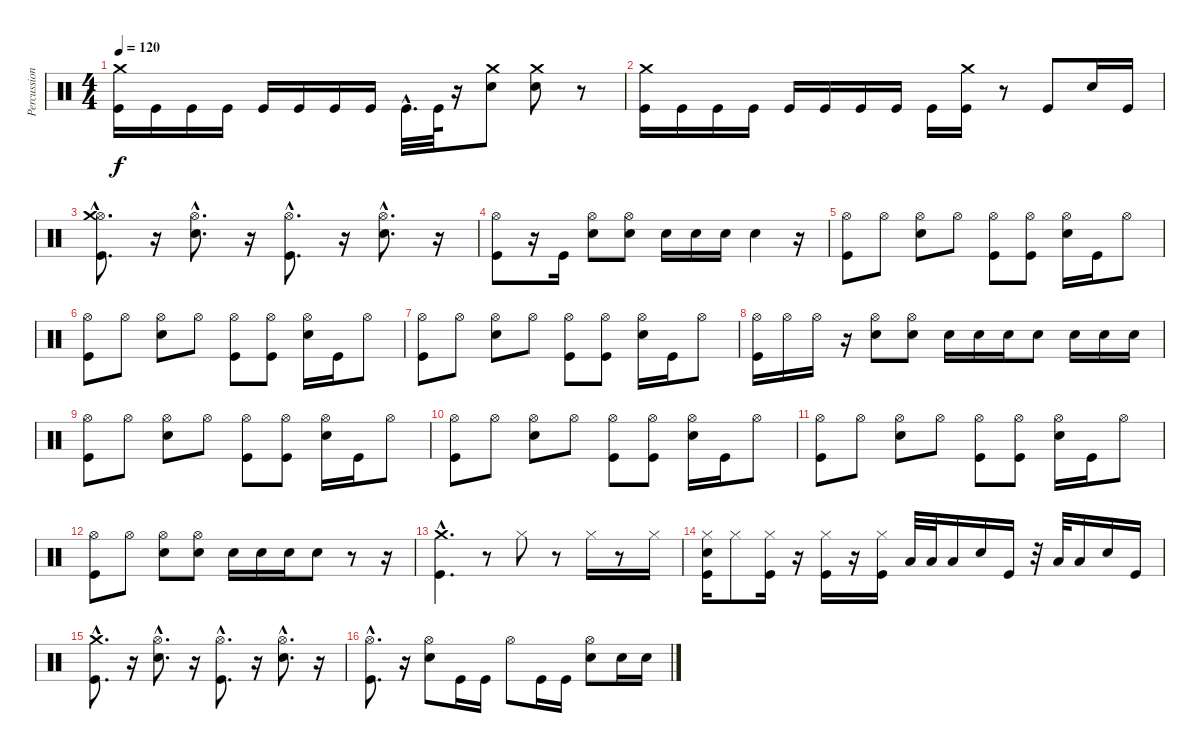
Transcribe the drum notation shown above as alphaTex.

\track ("Percussion" "Percussion") {instrument percussion}
\staff {score}
\articulation defaults
\ts (4 4)
\tempo 120
\clef neutral
\ks c
("Kick (hit)" "Crash medium (hit)").16{dy f} "Kick (hit)".16 "Kick (hit)".16 "Kick (hit)".16 "Kick (hit)".16 "Kick (hit)".16 "Kick (hit)".16 "Kick (hit)".16 "Kick (hit)"{hac}.32{d} "Kick (hit)".64 r.16 ("Crash medium (hit)" "Electric Snare (hit)").8 ("Crash medium (hit)" "Electric Snare (hit)").8 r.8 |
("Kick (hit)" "Crash medium (hit)").16 "Kick (hit)".16 "Kick (hit)".16 "Kick (hit)".16 "Kick (hit)".16 "Kick (hit)".16 "Kick (hit)".16 "Kick (hit)".16 "Kick (hit)".16 ("Kick (hit)" "Crash medium (hit)").16 r.8 "Kick (hit)".8 "Electric Snare (hit)".16 "Kick (hit)".16 |
("Hi-Hat (open)"{hac} "Kick (hit)"{hac} "Crash medium (hit)"{hac}).8{d} r.16 ("Hi-Hat (open)"{hac} "Electric Snare (hit)"{hac}).8{d} r.16 ("Hi-Hat (open)"{hac} "Kick (hit)"{hac}).8{d} r.16 ("Hi-Hat (open)"{hac} "Electric Snare (hit)"{hac}).8{d} r.16 |
("Hi-Hat (open)" "Kick (hit)").8 r.16 "Kick (hit)".16 ("Hi-Hat (open)" "Electric Snare (hit)").8 ("Hi-Hat (open)" "Electric Snare (hit)").8 "Electric Snare (hit)".16 "Electric Snare (hit)".16 "Electric Snare (hit)".16 "Electric Snare (hit)".4 r.16 |
("Hi-Hat (open)" "Kick (hit)").8 "Hi-Hat (open)".8 ("Hi-Hat (open)" "Electric Snare (hit)").8 "Hi-Hat (open)".8 ("Hi-Hat (open)" "Kick (hit)").8 ("Hi-Hat (open)" "Kick (hit)").8 ("Hi-Hat (open)" "Electric Snare (hit)").16 "Kick (hit)".16 "Hi-Hat (open)".8 |
("Hi-Hat (open)" "Kick (hit)").8 "Hi-Hat (open)".8 ("Hi-Hat (open)" "Electric Snare (hit)").8 "Hi-Hat (open)".8 ("Hi-Hat (open)" "Kick (hit)").8 ("Hi-Hat (open)" "Kick (hit)").8 ("Hi-Hat (open)" "Electric Snare (hit)").16 "Kick (hit)".16 "Hi-Hat (open)".8 |
("Hi-Hat (open)" "Kick (hit)").8 "Hi-Hat (open)".8 ("Hi-Hat (open)" "Electric Snare (hit)").8 "Hi-Hat (open)".8 ("Hi-Hat (open)" "Kick (hit)").8 ("Hi-Hat (open)" "Kick (hit)").8 ("Hi-Hat (open)" "Electric Snare (hit)").16 "Kick (hit)".16 "Hi-Hat (open)".8 |
("Hi-Hat (open)" "Kick (hit)").16 "Hi-Hat (open)".16 "Hi-Hat (open)".16 r.16 ("Hi-Hat (open)" "Electric Snare (hit)").8 ("Hi-Hat (open)" "Electric Snare (hit)").8 "Electric Snare (hit)".16 "Electric Snare (hit)".16 "Electric Snare (hit)".16 "Electric Snare (hit)".8 "Electric Snare (hit)".16 "Electric Snare (hit)".16 "Electric Snare (hit)".16 |
("Hi-Hat (open)" "Kick (hit)").8 "Hi-Hat (open)".8 ("Hi-Hat (open)" "Electric Snare (hit)").8 "Hi-Hat (open)".8 ("Hi-Hat (open)" "Kick (hit)").8 ("Hi-Hat (open)" "Kick (hit)").8 ("Hi-Hat (open)" "Electric Snare (hit)").16 "Kick (hit)".16 "Hi-Hat (open)".8 |
("Hi-Hat (open)" "Kick (hit)").8 "Hi-Hat (open)".8 ("Hi-Hat (open)" "Electric Snare (hit)").8 "Hi-Hat (open)".8 ("Hi-Hat (open)" "Kick (hit)").8 ("Hi-Hat (open)" "Kick (hit)").8 ("Hi-Hat (open)" "Electric Snare (hit)").16 "Kick (hit)".16 "Hi-Hat (open)".8 |
("Hi-Hat (open)" "Kick (hit)").8 "Hi-Hat (open)".8 ("Hi-Hat (open)" "Electric Snare (hit)").8 "Hi-Hat (open)".8 ("Hi-Hat (open)" "Kick (hit)").8 ("Hi-Hat (open)" "Kick (hit)").8 ("Hi-Hat (open)" "Electric Snare (hit)").16 "Kick (hit)".16 "Hi-Hat (open)".8 |
("Hi-Hat (open)" "Kick (hit)").8 "Hi-Hat (open)".8 ("Hi-Hat (open)" "Electric Snare (hit)").8 ("Hi-Hat (open)" "Electric Snare (hit)").8 "Electric Snare (hit)".16 "Electric Snare (hit)".16 "Electric Snare (hit)".16 "Electric Snare (hit)".8 r.8 r.16 |
("Kick (hit)"{hac} "Crash medium (hit)"{hac}).4{d} r.8 "Hi-Hat (closed)".8 r.8 "Hi-Hat (closed)".16 r.8 "Hi-Hat (closed)".16 |
("Electric Snare (hit)" "Kick (hit)" "Hi-Hat (closed)").16 "Hi-Hat (closed)".8 ("Kick (hit)" "Hi-Hat (closed)").16 r.16 ("Kick (hit)" "Hi-Hat (closed)").16 r.16 ("Kick (hit)" "Hi-Hat (closed)").16 "Low Tom (hit)".32 "Low Tom (hit)".32 "Low Tom (hit)".16 "Electric Snare (hit)".16 "Kick (hit)".16 r.32 "Low Tom (hit)".32 "Low Tom (hit)".16 "Electric Snare (hit)".16 "Kick (hit)".16 |
("Kick (hit)"{hac} "Crash medium (hit)"{hac}).8{d} r.16 ("Hi-Hat (open)"{hac} "Electric Snare (hit)"{hac}).8{d} r.16 ("Hi-Hat (open)"{hac} "Kick (hit)"{hac}).8{d} r.16 ("Hi-Hat (open)"{hac} "Electric Snare (hit)"{hac}).8{d} r.16 |
("Hi-Hat (open)"{hac} "Kick (hit)"{hac}).8{d} r.16 ("Hi-Hat (open)" "Electric Snare (hit)").8 "Kick (hit)".16 "Kick (hit)".16 "Hi-Hat (open)".8 "Kick (hit)".16 "Kick (hit)".16 ("Hi-Hat (open)" "Electric Snare (hit)").8 "Electric Snare (hit)".16 "Electric Snare (hit)".16
